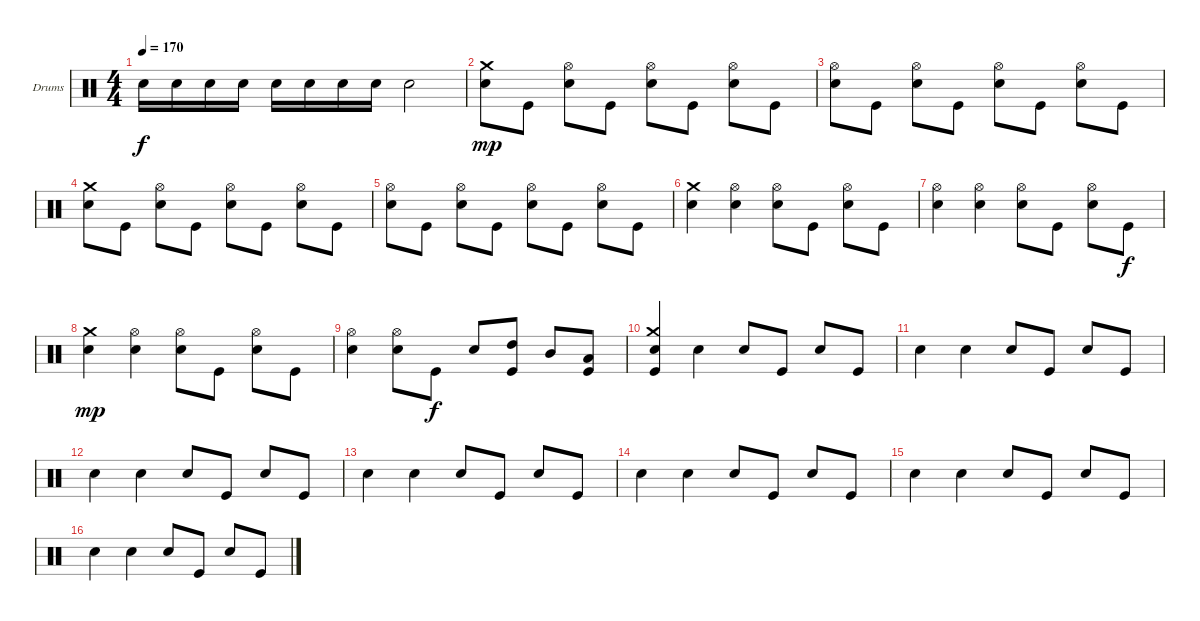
\defaultSystemsLayout 4
\bracketExtendMode groupsimilarinstruments
\firstSystemTrackNameOrientation horizontal
\otherSystemsTrackNameOrientation horizontal
\track ("Drumkit" "Drums") {instrument percussion}
\staff {score}
\articulation defaults
\ts (4 4)
\tempo 170
\clef neutral
\ks c "Snare (hit) 2".16{dy f} "Snare (hit) 2".16 "Snare (hit) 2".16 "Snare (hit) 2".16 "Snare (hit) 2".16 "Snare (hit) 2".16 "Snare (hit) 2".16 "Snare (hit) 2".16 "Snare (hit) 2".2
|
("Crash medium (hit)" "Snare (hit) 2").8{dy mp} "Kick (hit)".8 ("Hi-Hat (open)" "Snare (hit) 2").8 "Kick (hit)".8 ("Hi-Hat (open)" "Snare (hit) 2").8 "Kick (hit)".8 ("Hi-Hat (open)" "Snare (hit) 2").8 "Kick (hit)".8 |
("Hi-Hat (open)" "Snare (hit) 2").8 "Kick (hit)".8 ("Hi-Hat (open)" "Snare (hit) 2").8 "Kick (hit)".8 ("Hi-Hat (open)" "Snare (hit) 2").8 "Kick (hit)".8 ("Hi-Hat (open)" "Snare (hit) 2").8 "Kick (hit)".8 |
("Crash medium (hit)" "Snare (hit) 2").8 "Kick (hit)".8 ("Hi-Hat (open)" "Snare (hit) 2").8 "Kick (hit)".8 ("Hi-Hat (open)" "Snare (hit) 2").8 "Kick (hit)".8 ("Hi-Hat (open)" "Snare (hit) 2").8 "Kick (hit)".8 |
("Hi-Hat (open)" "Snare (hit) 2").8 "Kick (hit)".8 ("Hi-Hat (open)" "Snare (hit) 2").8 "Kick (hit)".8 ("Hi-Hat (open)" "Snare (hit) 2").8 "Kick (hit)".8 ("Hi-Hat (open)" "Snare (hit) 2").8 "Kick (hit)".8 |
("Crash medium (hit)" "Snare (hit) 2").4 ("Hi-Hat (open)" "Snare (hit) 2").4 ("Hi-Hat (open)" "Snare (hit) 2").8 "Kick (hit)".8 ("Hi-Hat (open)" "Snare (hit) 2").8 "Kick (hit)".8 |
("Hi-Hat (open)" "Snare (hit) 2").4 ("Hi-Hat (open)" "Snare (hit) 2").4 ("Hi-Hat (open)" "Snare (hit) 2").8 "Kick (hit)".8 ("Hi-Hat (open)" "Snare (hit) 2").8 "Kick (hit)".8{dy f} |
("Crash medium (hit)" "Snare (hit) 2").4{dy mp} ("Hi-Hat (open)" "Snare (hit) 2").4 ("Hi-Hat (open)" "Snare (hit) 2").8 "Kick (hit)".8 ("Hi-Hat (open)" "Snare (hit) 2").8 "Kick (hit)".8 |
("Hi-Hat (open)" "Snare (hit) 2").4 ("Hi-Hat (open)" "Snare (hit) 2").8 "Kick (hit)".8{dy f} "Snare (hit) 2".8 ("High Tom (hit)" "Kick (hit)").8 "Mid Tom (hit)".8 ("Low Tom (hit)" "Kick (hit)").8 |
("Crash medium (hit)" "Snare (hit) 2" "Kick (hit)").4 "Snare (hit) 2".4 "Snare (hit) 2".8 "Kick (hit)".8 "Snare (hit) 2".8 "Kick (hit)".8 |
"Snare (hit) 2".4 "Snare (hit) 2".4 "Snare (hit) 2".8 "Kick (hit)".8 "Snare (hit) 2".8 "Kick (hit)".8 |
"Snare (hit) 2".4 "Snare (hit) 2".4 "Snare (hit) 2".8 "Kick (hit)".8 "Snare (hit) 2".8 "Kick (hit)".8 |
"Snare (hit) 2".4 "Snare (hit) 2".4 "Snare (hit) 2".8 "Kick (hit)".8 "Snare (hit) 2".8 "Kick (hit)".8 |
"Snare (hit) 2".4 "Snare (hit) 2".4 "Snare (hit) 2".8 "Kick (hit)".8 "Snare (hit) 2".8 "Kick (hit)".8 |
"Snare (hit) 2".4 "Snare (hit) 2".4 "Snare (hit) 2".8 "Kick (hit)".8 "Snare (hit) 2".8 "Kick (hit)".8 |
"Snare (hit) 2".4 "Snare (hit) 2".4 "Snare (hit) 2".8 "Kick (hit)".8 "Snare (hit) 2".8 "Kick (hit)".8
